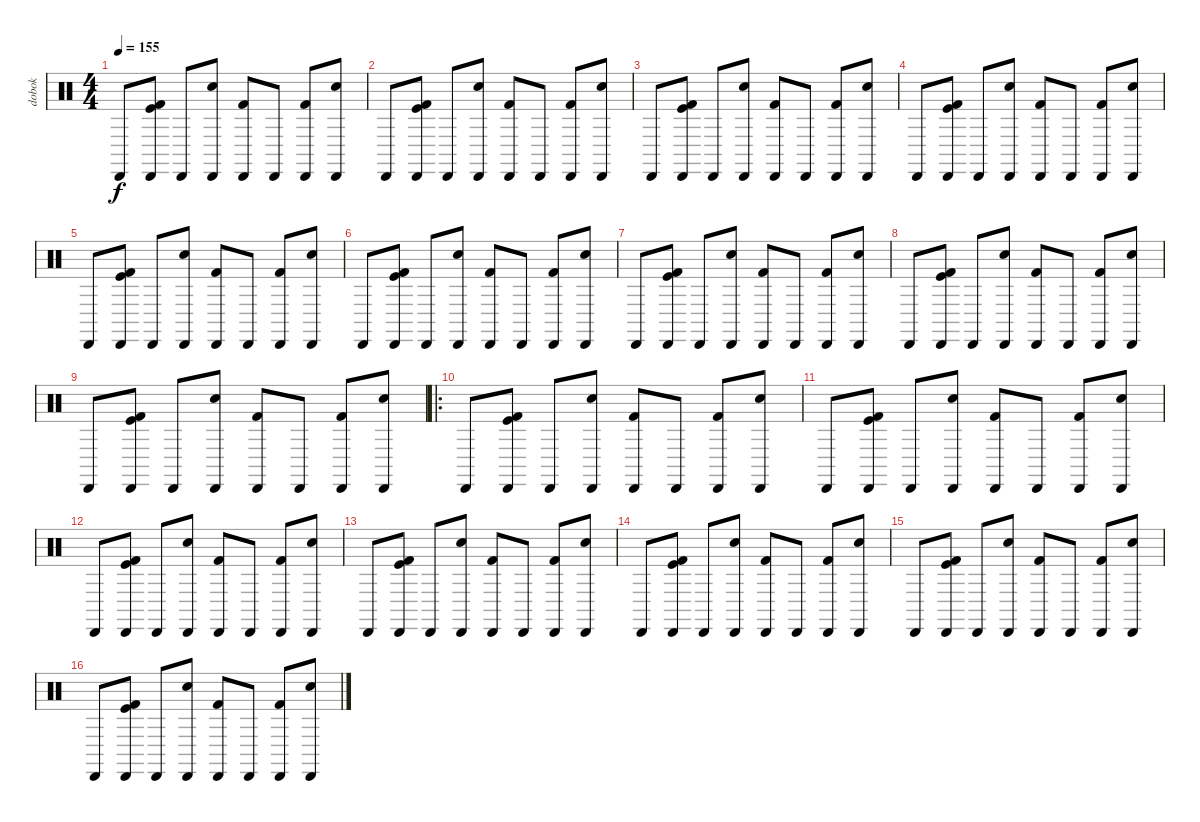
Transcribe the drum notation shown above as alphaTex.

\track ("dobok" "dobok") {instrument percussion}
\staff {score}
\articulation defaults
\ts (4 4)
\tempo 155
\clef neutral
\ks c "Cabasa (hit)".8{dy f}
("Cabasa (hit)" "Kick (hit) 2" "Kick (hit)").8 "Cabasa (hit)".8 ("Cabasa (hit)" "Electric Snare (hit)").8 ("Cabasa (hit)" "Kick (hit) 2").8 "Cabasa (hit)".8 ("Cabasa (hit)" "Kick (hit) 2").8 ("Cabasa (hit)" "Electric Snare (hit)").8 |
"Cabasa (hit)".8 ("Cabasa (hit)" "Kick (hit) 2" "Kick (hit)").8 "Cabasa (hit)".8 ("Cabasa (hit)" "Electric Snare (hit)").8 ("Cabasa (hit)" "Kick (hit) 2").8 "Cabasa (hit)".8 ("Cabasa (hit)" "Kick (hit) 2").8 ("Cabasa (hit)" "Electric Snare (hit)").8 |
"Cabasa (hit)".8 ("Cabasa (hit)" "Kick (hit) 2" "Kick (hit)").8 "Cabasa (hit)".8 ("Cabasa (hit)" "Electric Snare (hit)").8 ("Cabasa (hit)" "Kick (hit) 2").8 "Cabasa (hit)".8 ("Cabasa (hit)" "Kick (hit) 2").8 ("Cabasa (hit)" "Electric Snare (hit)").8 |
"Cabasa (hit)".8 ("Cabasa (hit)" "Kick (hit) 2" "Kick (hit)").8 "Cabasa (hit)".8 ("Cabasa (hit)" "Electric Snare (hit)").8 ("Cabasa (hit)" "Kick (hit) 2").8 "Cabasa (hit)".8 ("Cabasa (hit)" "Kick (hit) 2").8 ("Cabasa (hit)" "Electric Snare (hit)").8 |
"Cabasa (hit)".8 ("Cabasa (hit)" "Kick (hit) 2" "Kick (hit)").8 "Cabasa (hit)".8 ("Cabasa (hit)" "Electric Snare (hit)").8 ("Cabasa (hit)" "Kick (hit) 2").8 "Cabasa (hit)".8 ("Cabasa (hit)" "Kick (hit) 2").8 ("Cabasa (hit)" "Electric Snare (hit)").8 |
"Cabasa (hit)".8 ("Cabasa (hit)" "Kick (hit) 2" "Kick (hit)").8 "Cabasa (hit)".8 ("Cabasa (hit)" "Electric Snare (hit)").8 ("Cabasa (hit)" "Kick (hit) 2").8 "Cabasa (hit)".8 ("Cabasa (hit)" "Kick (hit) 2").8 ("Cabasa (hit)" "Electric Snare (hit)").8 |
"Cabasa (hit)".8 ("Cabasa (hit)" "Kick (hit) 2" "Kick (hit)").8 "Cabasa (hit)".8 ("Cabasa (hit)" "Electric Snare (hit)").8 ("Cabasa (hit)" "Kick (hit) 2").8 "Cabasa (hit)".8 ("Cabasa (hit)" "Kick (hit) 2").8 ("Cabasa (hit)" "Electric Snare (hit)").8 |
"Cabasa (hit)".8 ("Cabasa (hit)" "Kick (hit) 2" "Kick (hit)").8 "Cabasa (hit)".8 ("Cabasa (hit)" "Electric Snare (hit)").8 ("Cabasa (hit)" "Kick (hit) 2").8 "Cabasa (hit)".8 ("Cabasa (hit)" "Kick (hit) 2").8 ("Cabasa (hit)" "Electric Snare (hit)").8 |
"Cabasa (hit)".8 ("Cabasa (hit)" "Kick (hit) 2" "Kick (hit)").8 "Cabasa (hit)".8 ("Cabasa (hit)" "Electric Snare (hit)").8 ("Cabasa (hit)" "Kick (hit) 2").8 "Cabasa (hit)".8 ("Cabasa (hit)" "Kick (hit) 2").8 ("Cabasa (hit)" "Electric Snare (hit)").8 |
\ro "Cabasa (hit)".8
("Cabasa (hit)" "Kick (hit) 2" "Kick (hit)").8 "Cabasa (hit)".8 ("Cabasa (hit)" "Electric Snare (hit)").8 ("Cabasa (hit)" "Kick (hit) 2").8 "Cabasa (hit)".8 ("Cabasa (hit)" "Kick (hit) 2").8 ("Cabasa (hit)" "Electric Snare (hit)").8 |
"Cabasa (hit)".8 ("Cabasa (hit)" "Kick (hit) 2" "Kick (hit)").8 "Cabasa (hit)".8 ("Cabasa (hit)" "Electric Snare (hit)").8 ("Cabasa (hit)" "Kick (hit) 2").8 "Cabasa (hit)".8 ("Cabasa (hit)" "Kick (hit) 2").8 ("Cabasa (hit)" "Electric Snare (hit)").8 |
"Cabasa (hit)".8 ("Cabasa (hit)" "Kick (hit) 2" "Kick (hit)").8 "Cabasa (hit)".8 ("Cabasa (hit)" "Electric Snare (hit)").8 ("Cabasa (hit)" "Kick (hit) 2").8 "Cabasa (hit)".8 ("Cabasa (hit)" "Kick (hit) 2").8 ("Cabasa (hit)" "Electric Snare (hit)").8 |
"Cabasa (hit)".8 ("Cabasa (hit)" "Kick (hit) 2" "Kick (hit)").8 "Cabasa (hit)".8 ("Cabasa (hit)" "Electric Snare (hit)").8 ("Cabasa (hit)" "Kick (hit) 2").8 "Cabasa (hit)".8 ("Cabasa (hit)" "Kick (hit) 2").8 ("Cabasa (hit)" "Electric Snare (hit)").8 |
"Cabasa (hit)".8 ("Cabasa (hit)" "Kick (hit) 2" "Kick (hit)").8 "Cabasa (hit)".8 ("Cabasa (hit)" "Electric Snare (hit)").8 ("Cabasa (hit)" "Kick (hit) 2").8 "Cabasa (hit)".8 ("Cabasa (hit)" "Kick (hit) 2").8 ("Cabasa (hit)" "Electric Snare (hit)").8 |
"Cabasa (hit)".8 ("Cabasa (hit)" "Kick (hit) 2" "Kick (hit)").8 "Cabasa (hit)".8 ("Cabasa (hit)" "Electric Snare (hit)").8 ("Cabasa (hit)" "Kick (hit) 2").8 "Cabasa (hit)".8 ("Cabasa (hit)" "Kick (hit) 2").8 ("Cabasa (hit)" "Electric Snare (hit)").8 |
"Cabasa (hit)".8 ("Cabasa (hit)" "Kick (hit) 2" "Kick (hit)").8 "Cabasa (hit)".8 ("Cabasa (hit)" "Electric Snare (hit)").8 ("Cabasa (hit)" "Kick (hit) 2").8 "Cabasa (hit)".8 ("Cabasa (hit)" "Kick (hit) 2").8 ("Cabasa (hit)" "Electric Snare (hit)").8
